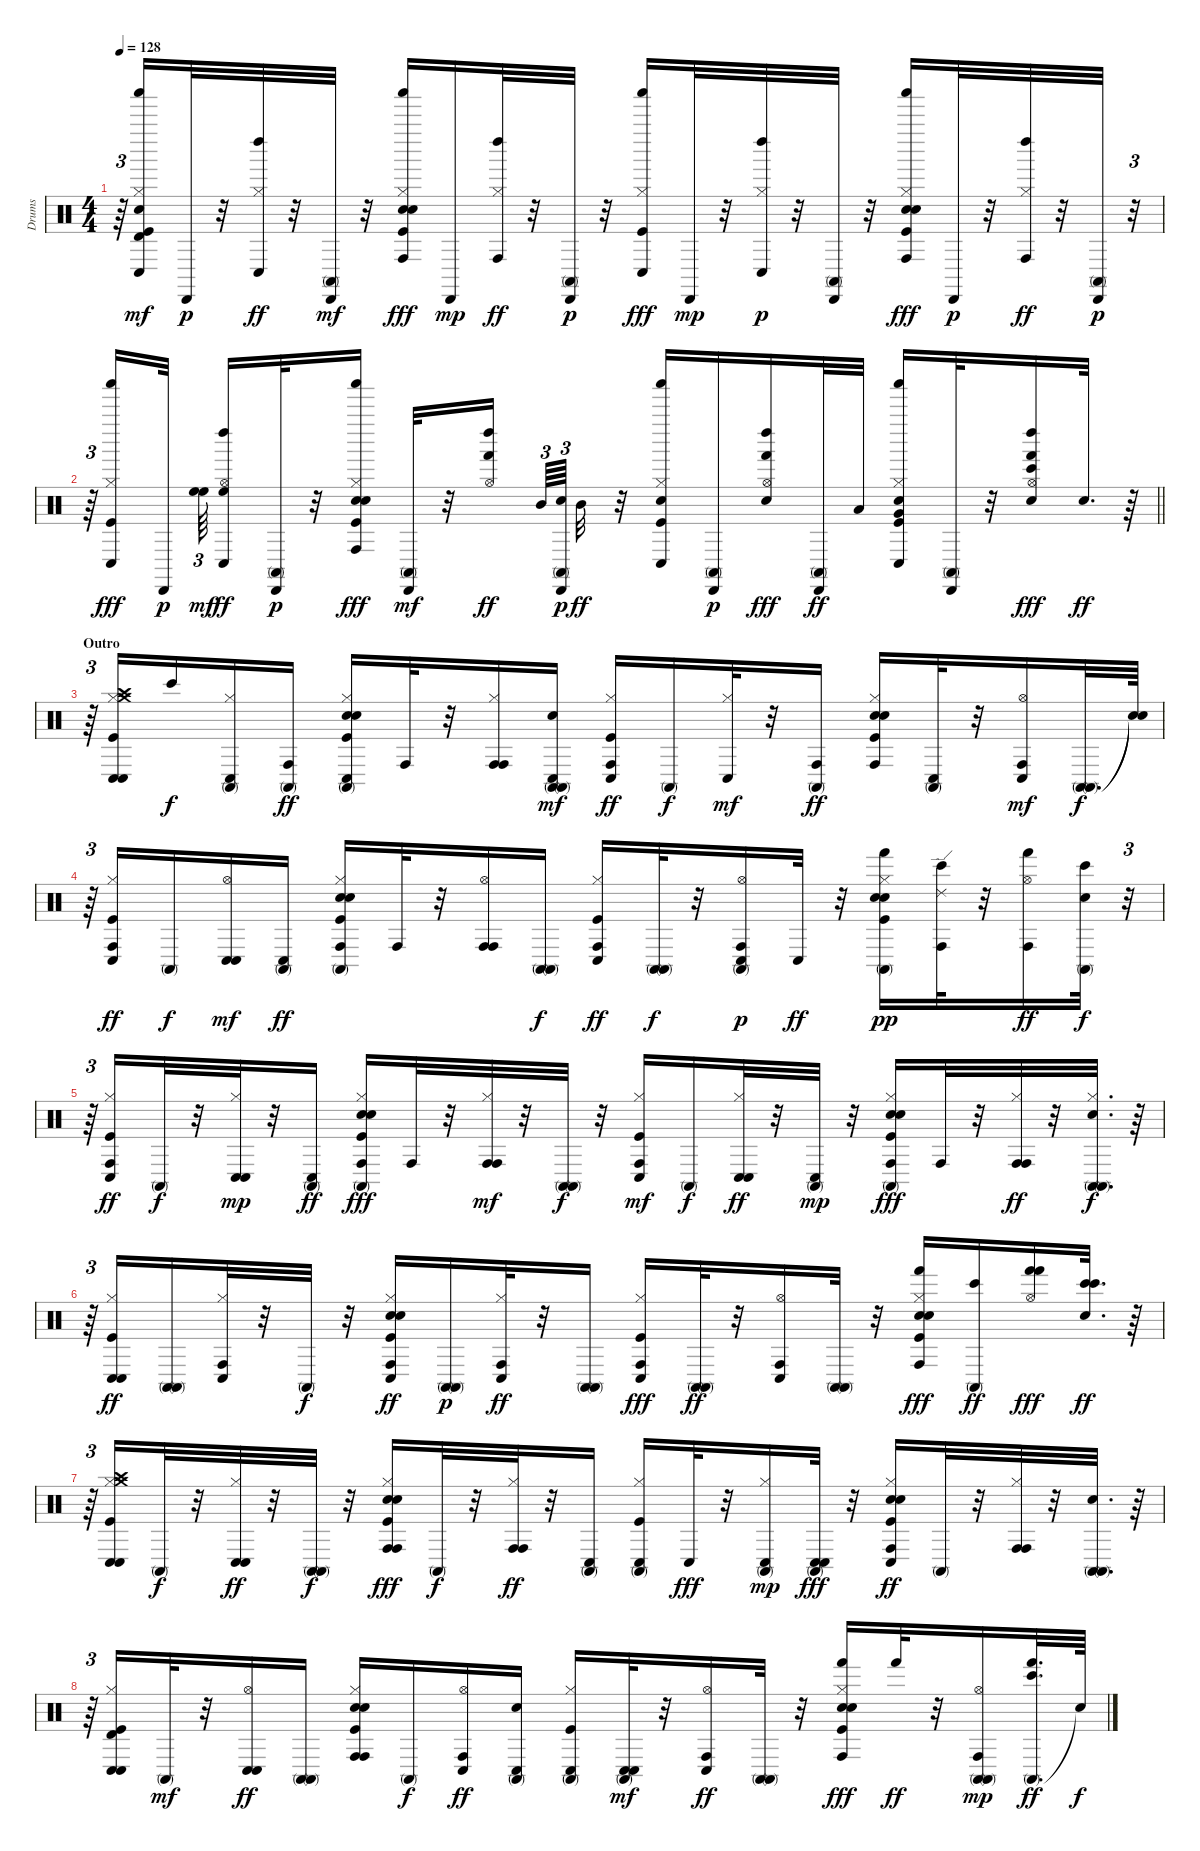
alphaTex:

\track ("Drums" "Drums") {instrument percussion}
\staff {score}
\articulation defaults
\ts (4 4)
\tempo 128
\clef neutral
\ks c
r.64{tu (3 2) dy p} ("Kick (hit)" "Snare (hit) 2" "Hi-Hat (closed)" "Shaker (hit)" "Conga low (hit)" "Timbale high (hit)").16{dy mf} "Cabasa (hit)".32{dy p} r.32 ("Hi-Hat (closed)" "Left Maraca (hit)" "Conga low (hit)").32{dy ff} r.32 ("Cabasa (hit)" "Conga high (mute)").32{dy mf} r.32 ("Kick (hit)" "Snare (hit) 2" "Hand Clap (hit)" "Hi-Hat (closed)" "Shaker (hit)" "Conga high (hit)").16{dy fff} "Cabasa (hit)".16{dy mp} ("Hi-Hat (closed)" "Left Maraca (hit)" "Conga high (hit)").32{dy ff} r.32 ("Cabasa (hit)" "Conga high (mute)").32{dy p} r.32 ("Kick (hit)" "Hi-Hat (closed)" "Shaker (hit)" "Conga low (hit)").16{dy fff} "Cabasa (hit)".32{dy mp} r.32 ("Hi-Hat (closed)" "Left Maraca (hit)" "Conga low (hit)").32{dy p} r.32 ("Cabasa (hit)" "Conga high (mute)").32 r.32 ("Kick (hit)" "Snare (hit) 2" "Hand Clap (hit)" "Hi-Hat (closed)" "Shaker (hit)" "Conga high (hit)").16{dy fff} "Cabasa (hit)".32{dy p} r.32 ("Hi-Hat (closed)" "Left Maraca (hit)" "Conga high (hit)").32{dy ff} r.32 ("Cabasa (hit)" "Conga high (mute)").32{dy p} r.32{tu (3 2)} |
\barLineRight lightlight
r.64{tu (3 2)} ("Kick (hit)" "Hi-Hat (closed)" "Shaker (hit)" "Conga low (hit)").16{dy fff} "Cabasa (hit)".32{dy p beam splitsecondary} ("High Floor Tom (hit)" "High Floor Tom (hit)").64{tu (3 2) dy mf beam splitsecondary} ("Hi-Hat (open)" "Left Maraca (hit)" "High Floor Tom (hit)" "Conga low (hit)").16{dy ff} ("Cabasa (hit)" "Conga high (mute)").32{dy p} r.32 ("Kick (hit)" "Snare (hit) 2" "Hand Clap (hit)" "Hi-Hat (closed)" "Shaker (hit)" "Conga high (hit)").16{dy fff} ("Cabasa (hit)" "Conga high (mute)").32{dy mf} r.32 ("Hi-Hat (open)" "Left Maraca (hit)" "Hand (hit)").16{dy ff beam splitsecondary} "Mid Tom (hit)".64{tu (3 2)} ("Snare (hit) 2" "Cabasa (hit)" "Conga high (mute)").64{tu (3 2) dy p beam splitsecondary} "Mid Tom (hit)".32{dy ff} r.32 ("Kick (hit)" "Snare (hit) 2" "Hi-Hat (closed)" "Shaker (hit)" "Conga low (hit)").16 ("Cabasa (hit)" "Conga high (mute)").16{dy p} ("Snare (hit) 2" "Hi-Hat (open)" "Left Maraca (hit)" "Hand (hit)").16{dy fff} ("Cabasa (hit)" "Conga high (mute)").32{dy ff} "Low Tom (hit)".32 ("Kick (hit)" "Hand Clap (hit)" "Hi-Hat (closed)" "Shaker (hit)" "Conga low (hit)" "Very Low Tom (hit)").16 ("Cabasa (hit)" "Conga high (mute)").32 r.32 ("Snare (hit) 2" "Hi-Hat (open)" "Left Maraca (hit)" "Hand (hit)" "Bongo High (hit)").16{dy fff} "Snare (hit) 2".32{d dy ff} r.64 |
\section ("" "Outro")
r.64{tu (3 2)} ("Kick (hit)" "Hi-Hat (closed)" "Crash medium (hit)" "Crash high (hit)" "Conga low (hit)" "Conga low (hit)").16 "Bongo High (hit)".16{dy f} ("Hi-Hat (closed)" "Conga high (mute)" "Conga low (hit)").16 ("Conga high (hit)" "Conga high (mute)").16{dy ff} ("Kick (hit)" "Snare (hit) 2" "Hand Clap (hit)" "Hi-Hat (closed)" "Conga high (mute)" "Conga low (hit)").16 "Conga high (hit)".32 r.32 ("Hi-Hat (closed)" "Conga high (hit)" "Conga high (hit)").16 ("Snare (hit) 2" "Conga high (mute)" "Conga high (mute)" "Conga low (hit)").16{dy mf} ("Kick (hit)" "Hi-Hat (closed)" "Conga high (hit)" "Conga low (hit)").16{dy ff} "Conga high (mute)".16{dy f} ("Hi-Hat (closed)" "Conga low (hit)").32{dy mf} r.32 ("Conga high (hit)" "Conga high (mute)").16{dy ff} ("Kick (hit)" "Snare (hit) 2" "Hand Clap (hit)" "Hi-Hat (closed)" "Conga high (hit)").16 ("Conga high (mute)" "Conga low (hit)").32 r.32 ("Hi-Hat (open)" "Conga low (hit)" "Conga high (hit)").16{dy mf} ("Conga high (mute)" "Conga high (mute)").32{d dy f} ("Snare (hit)"{t} "Snare (hit)"{t}).64 |
r.64{tu (3 2)} ("Kick (hit)" "Hi-Hat (closed)" "Conga high (hit)" "Conga low (hit)").16{dy ff} "Conga high (mute)".16{dy f} ("Hi-Hat (open)" "Conga low (hit)" "Conga low (hit)").16{dy mf} ("Conga low (hit)" "Conga high (mute)").16{dy ff} ("Kick (hit)" "Snare (hit) 2" "Hand Clap (hit)" "Hi-Hat (closed)" "Conga high (mute)" "Conga high (hit)").16 "Conga high (hit)".32 r.32 ("Hi-Hat (open)" "Conga high (hit)" "Conga high (hit)").16 ("Conga high (mute)" "Conga high (mute)").16{dy f} ("Kick (hit)" "Hi-Hat (closed)" "Conga high (hit)" "Conga low (hit)").16{dy ff} ("Conga high (mute)" "Conga high (mute)").32{dy f} r.32 ("Hi-Hat (open)" "Conga low (hit)" "Conga high (hit)" "Conga high (mute)").16{dy p} "Conga low (hit)".32{dy ff} r.32 ("Kick (hit)" "Snare (hit) 2" "Hand Clap (hit)" "Hi-Hat (closed)" "Conga high (mute)" "Hand (hit)").16{dy pp} ("Conga high (hit)" "Bongo High (hit)" "Ride (edge) 2").32 r.32 ("Hi-Hat (open)" "Conga high (hit)" "Hand (hit)").16{dy ff} ("Snare (hit) 2" "Conga high (mute)" "Bongo High (hit)").32{dy f} r.32{tu (3 2)} |
r.64{tu (3 2)} ("Kick (hit)" "Hi-Hat (closed)" "Conga high (hit)" "Conga low (hit)").16{dy ff} "Conga high (mute)".32{dy f} r.32 ("Hi-Hat (closed)" "Conga low (hit)" "Conga low (hit)").32{dy mp} r.32 ("Conga low (hit)" "Conga high (mute)").16{dy ff} ("Kick (hit)" "Snare (hit) 2" "Hand Clap (hit)" "Hi-Hat (closed)" "Conga high (mute)" "Conga high (hit)").16{dy fff} "Conga high (hit)".32 r.32 ("Hi-Hat (closed)" "Conga high (hit)" "Conga high (hit)").32{dy mf} r.32 ("Conga high (mute)" "Conga high (mute)").32{dy f} r.32 ("Kick (hit)" "Hi-Hat (closed)" "Conga high (hit)" "Conga low (hit)").16{dy mf} "Conga high (mute)".16{dy f} ("Hi-Hat (closed)" "Conga low (hit)" "Conga low (hit)").32{dy ff} r.32 ("Conga low (hit)" "Conga high (mute)").32{dy mp} r.32 ("Kick (hit)" "Snare (hit) 2" "Hand Clap (hit)" "Hi-Hat (closed)" "Conga high (mute)" "Conga high (hit)").16{dy fff} "Conga high (hit)".32 r.32 ("Hi-Hat (closed)" "Conga high (hit)" "Conga high (hit)").32{dy ff} r.32 ("Snare (hit) 2" "Hi-Hat (closed)" "Conga high (mute)" "Conga high (mute)").32{d dy f} r.64 |
r.64{tu (3 2)} ("Kick (hit)" "Hi-Hat (closed)" "Conga low (hit)" "Conga low (hit)").16{dy ff} ("Conga high (mute)" "Conga high (mute)").16 ("Hi-Hat (closed)" "Conga high (hit)" "Conga low (hit)").32 r.32 "Conga high (mute)".32{dy f} r.32 ("Kick (hit)" "Snare (hit) 2" "Hand Clap (hit)" "Hi-Hat (closed)" "Conga low (hit)" "Conga high (hit)").16{dy ff} ("Conga high (mute)" "Conga high (mute)").16{dy p} ("Hi-Hat (closed)" "Conga high (hit)" "Conga low (hit)").32{dy ff} r.32 ("Conga high (mute)" "Conga high (mute)").16 ("Kick (hit)" "Hi-Hat (closed)" "Conga low (hit)" "Conga high (hit)").16{dy fff} ("Conga high (mute)" "Conga high (mute)").32{dy ff} r.32 ("Hi-Hat (open)" "Conga high (hit)" "Conga low (hit)").16 ("Conga high (mute)" "Conga high (mute)").32 r.32 ("Kick (hit)" "Snare (hit) 2" "Hand Clap (hit)" "Hi-Hat (closed)" "Hand (hit)" "Conga high (hit)").16{dy fff} ("Bongo High (hit)" "Conga high (mute)").16{dy ff} ("Hi-Hat (open)" "Hand (hit)" "Hand (hit)").16{dy fff} ("Snare (hit) 2" "Bongo High (hit)" "Bongo High (hit)").32{d dy ff} r.64 |
r.64{tu (3 2)} ("Kick (hit)" "Hi-Hat (closed)" "Crash medium (hit)" "Crash high (hit)" "Conga low (hit)" "Conga low (hit)").16 "Conga high (mute)".32{dy f} r.32 ("Hi-Hat (closed)" "Conga low (hit)" "Conga low (hit)").32{dy ff} r.32 ("Conga high (mute)" "Conga high (mute)").32{dy f} r.32 ("Kick (hit)" "Snare (hit) 2" "Hand Clap (hit)" "Hi-Hat (closed)" "Conga high (hit)" "Conga high (hit)").16{dy fff} "Conga high (mute)".32{dy f} r.32 ("Hi-Hat (closed)" "Conga high (hit)" "Conga high (hit)").32{dy ff} r.32 ("Conga low (hit)" "Conga high (mute)").16 ("Kick (hit)" "Hi-Hat (closed)" "Conga high (mute)" "Conga low (hit)").16 "Conga low (hit)".32{dy fff} r.32 ("Hi-Hat (closed)" "Conga high (mute)" "Conga low (hit)").16{dy mp} ("Conga low (hit)" "Conga high (mute)" "Conga low (hit)").32{dy fff} r.32 ("Kick (hit)" "Snare (hit) 2" "Hand Clap (hit)" "Hi-Hat (closed)" "Conga low (hit)" "Conga high (hit)").16{dy ff} "Conga high (mute)".32 r.32 ("Hi-Hat (closed)" "Conga high (hit)" "Conga high (hit)").32 r.32 ("Snare (hit) 2" "Conga high (mute)" "Conga high (mute)").32{d} r.64 |
r.64{tu (3 2)} ("Kick (hit)" "Hi-Hat (closed)" "Conga low (hit)" "Timbale high (hit)" "Conga low (hit)").16 "Conga high (mute)".32{dy mf} r.32 ("Hi-Hat (open)" "Conga low (hit)" "Conga low (hit)").16{dy ff} ("Conga high (mute)" "Conga high (mute)").16 ("Kick (hit)" "Snare (hit) 2" "Hand Clap (hit)" "Hi-Hat (closed)" "Conga high (hit)" "Conga high (hit)").16 "Conga high (mute)".16{dy f} ("Hi-Hat (open)" "Conga low (hit)" "Conga high (hit)").16{dy ff} ("Snare (hit) 2" "Conga low (hit)" "Conga high (mute)").16 ("Kick (hit)" "Hi-Hat (closed)" "Conga high (mute)" "Conga low (hit)").16 ("Conga low (hit)" "Conga high (mute)" "Conga low (hit)").32{dy mf} r.32 ("Hi-Hat (open)" "Conga low (hit)" "Conga high (hit)").16{dy ff} ("Conga high (mute)" "Conga high (mute)").32 r.32 ("Kick (hit)" "Snare (hit) 2" "Hand Clap (hit)" "Hi-Hat (closed)" "Conga high (hit)" "Hand (hit)").16{dy fff} "Hand (hit)".32{dy ff} r.32 ("Hi-Hat (open)" "Conga high (mute)" "Conga high (hit)" "Conga high (mute)").16{dy mp} ("Conga high (mute)" "Hand (hit)" "Bongo High (hit)").32{d dy ff} "Snare (hit)"{t}.64{dy f}
